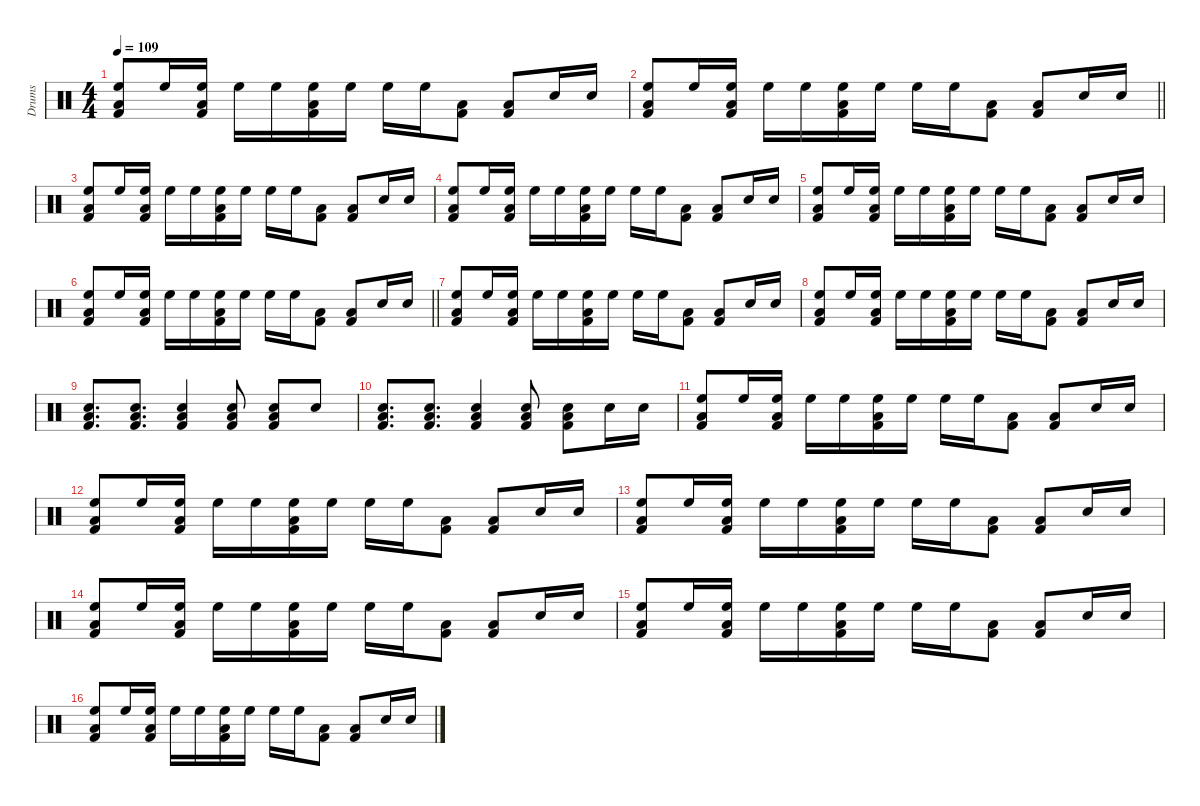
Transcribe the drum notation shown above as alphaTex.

\defaultSystemsLayout 4
\hideDynamics
\bracketExtendMode nobrackets
\otherSystemsTrackNameOrientation horizontal
\track ("Drums" "Drums") {instrument percussion}
\staff {score}
\articulation defaults
\ts (4 4)
\tempo 109
\clef neutral
\scale
0.5
\ks c
("Kick (hit) 2" "Low Tom (hit)" "High Floor Tom (hit)").8{dy mp beam Up} "High Floor Tom (hit)".16{beam Up} ("Kick (hit) 2" "Low Tom (hit)" "High Floor Tom (hit)").16{beam Up} "High Floor Tom (hit)".16{beam Down} "High Floor Tom (hit)".16{beam Down} ("Kick (hit) 2" "Low Tom (hit)" "High Floor Tom (hit)").16{beam Down} "High Floor Tom (hit)".16{beam Down} "High Floor Tom (hit)".16{beam Down} "High Floor Tom (hit)".16{beam Down} ("Kick (hit) 2" "Low Tom (hit)").8{beam Down} ("Kick (hit) 2" "Low Tom (hit)").8{beam Up} "Snare (hit) 2".16{beam Up} "Snare (hit) 2".16{beam Up} |
\scale
0.5
\barLineRight lightlight
("Kick (hit) 2" "Low Tom (hit)" "High Floor Tom (hit)").8{beam Up} "High Floor Tom (hit)".16{beam Up} ("Kick (hit) 2" "Low Tom (hit)" "High Floor Tom (hit)").16{beam Up} "High Floor Tom (hit)".16{beam Down} "High Floor Tom (hit)".16{beam Down} ("Kick (hit) 2" "Low Tom (hit)" "High Floor Tom (hit)").16{beam Down} "High Floor Tom (hit)".16{beam Down} "High Floor Tom (hit)".16{beam Down} "High Floor Tom (hit)".16{beam Down} ("Kick (hit) 2" "Low Tom (hit)").8{beam Down} ("Kick (hit) 2" "Low Tom (hit)").8{beam Up} "Snare (hit) 2".16{beam Up} "Snare (hit) 2".16{beam Up} |
\scale
0.480938 ("Kick (hit) 2" "Low Tom (hit)" "High Floor Tom (hit)").8{beam Up} "High Floor Tom (hit)".16{beam Up} ("Kick (hit) 2" "Low Tom (hit)" "High Floor Tom (hit)").16{beam Up} "High Floor Tom (hit)".16{beam Down} "High Floor Tom (hit)".16{beam Down} ("Kick (hit) 2" "Low Tom (hit)" "High Floor Tom (hit)").16{beam Down} "High Floor Tom (hit)".16{beam Down} "High Floor Tom (hit)".16{beam Down} "High Floor Tom (hit)".16{beam Down} ("Kick (hit) 2" "Low Tom (hit)").8{beam Down} ("Kick (hit) 2" "Low Tom (hit)").8{beam Up} "Snare (hit) 2".16{beam Up} "Snare (hit) 2".16{beam Up} |
\scale
0.519062 ("Kick (hit) 2" "Low Tom (hit)" "High Floor Tom (hit)").8{beam Up} "High Floor Tom (hit)".16{beam Up} ("Kick (hit) 2" "Low Tom (hit)" "High Floor Tom (hit)").16{beam Up} "High Floor Tom (hit)".16{beam Down} "High Floor Tom (hit)".16{beam Down} ("Kick (hit) 2" "Low Tom (hit)" "High Floor Tom (hit)").16{beam Down} "High Floor Tom (hit)".16{beam Down} "High Floor Tom (hit)".16{beam Down} "High Floor Tom (hit)".16{beam Down} ("Kick (hit) 2" "Low Tom (hit)").8{beam Down} ("Kick (hit) 2" "Low Tom (hit)").8{beam Up} "Snare (hit) 2".16{beam Up} "Snare (hit) 2".16{beam Up} |
\scale
0.480938 ("Kick (hit) 2" "Low Tom (hit)" "High Floor Tom (hit)").8{beam Up} "High Floor Tom (hit)".16{beam Up} ("Kick (hit) 2" "Low Tom (hit)" "High Floor Tom (hit)").16{beam Up} "High Floor Tom (hit)".16{beam Down} "High Floor Tom (hit)".16{beam Down} ("Kick (hit) 2" "Low Tom (hit)" "High Floor Tom (hit)").16{beam Down} "High Floor Tom (hit)".16{beam Down} "High Floor Tom (hit)".16{beam Down} "High Floor Tom (hit)".16{beam Down} ("Kick (hit) 2" "Low Tom (hit)").8{beam Down} ("Kick (hit) 2" "Low Tom (hit)").8{beam Up} "Snare (hit) 2".16{beam Up} "Snare (hit) 2".16{beam Up} |
\scale
0.519062
\barLineRight lightlight
("Kick (hit) 2" "Low Tom (hit)" "High Floor Tom (hit)").8{beam Up} "High Floor Tom (hit)".16{beam Up} ("Kick (hit) 2" "Low Tom (hit)" "High Floor Tom (hit)").16{beam Up} "High Floor Tom (hit)".16{beam Down} "High Floor Tom (hit)".16{beam Down} ("Kick (hit) 2" "Low Tom (hit)" "High Floor Tom (hit)").16{beam Down} "High Floor Tom (hit)".16{beam Down} "High Floor Tom (hit)".16{beam Down} "High Floor Tom (hit)".16{beam Down} ("Kick (hit) 2" "Low Tom (hit)").8{beam Down} ("Kick (hit) 2" "Low Tom (hit)").8{beam Up} "Snare (hit) 2".16{beam Up} "Snare (hit) 2".16{beam Up} |
\scale
0.5 ("Kick (hit) 2" "Low Tom (hit)" "High Floor Tom (hit)").8{beam Up} "High Floor Tom (hit)".16{beam Up} ("Kick (hit) 2" "Low Tom (hit)" "High Floor Tom (hit)").16{beam Up} "High Floor Tom (hit)".16{beam Down} "High Floor Tom (hit)".16{beam Down} ("Kick (hit) 2" "Low Tom (hit)" "High Floor Tom (hit)").16{beam Down} "High Floor Tom (hit)".16{beam Down} "High Floor Tom (hit)".16{beam Down} "High Floor Tom (hit)".16{beam Down} ("Kick (hit) 2" "Low Tom (hit)").8{beam Down} ("Kick (hit) 2" "Low Tom (hit)").8{beam Up} "Snare (hit) 2".16{beam Up} "Snare (hit) 2".16{beam Up} |
\scale
0.5 ("Kick (hit) 2" "Low Tom (hit)" "High Floor Tom (hit)").8{beam Up} "High Floor Tom (hit)".16{beam Up} ("Kick (hit) 2" "Low Tom (hit)" "High Floor Tom (hit)").16{beam Up} "High Floor Tom (hit)".16{beam Down} "High Floor Tom (hit)".16{beam Down} ("Kick (hit) 2" "Low Tom (hit)" "High Floor Tom (hit)").16{beam Down} "High Floor Tom (hit)".16{beam Down} "High Floor Tom (hit)".16{beam Down} "High Floor Tom (hit)".16{beam Down} ("Kick (hit) 2" "Low Tom (hit)").8{beam Down} ("Kick (hit) 2" "Low Tom (hit)").8{beam Up} "Snare (hit) 2".16{beam Up} "Snare (hit) 2".16{beam Up} |
("Kick (hit) 2" "Low Tom (hit)" "Snare (hit) 2").8{d beam Up} ("Kick (hit) 2" "Low Tom (hit)" "Snare (hit) 2").8{d beam Up} ("Kick (hit) 2" "Low Tom (hit)" "Snare (hit) 2").4{beam Up} ("Kick (hit) 2" "Low Tom (hit)" "Snare (hit) 2").8{beam Up} ("Kick (hit) 2" "Low Tom (hit)" "Snare (hit) 2").8{beam Up} "Snare (hit) 2".8{beam Up} |
("Kick (hit) 2" "Low Tom (hit)" "Snare (hit) 2").8{d beam Up} ("Kick (hit) 2" "Low Tom (hit)" "Snare (hit) 2").8{d beam Up} ("Kick (hit) 2" "Low Tom (hit)" "Snare (hit) 2").4{beam Up} ("Kick (hit) 2" "Low Tom (hit)" "Snare (hit) 2").8{beam Up} ("Kick (hit) 2" "Low Tom (hit)" "Snare (hit) 2").8{beam Down} "Snare (hit) 2".16{beam Down} "Snare (hit) 2".16{beam Down} |
("Kick (hit) 2" "Low Tom (hit)" "High Floor Tom (hit)").8{beam Up} "High Floor Tom (hit)".16{beam Up} ("Kick (hit) 2" "Low Tom (hit)" "High Floor Tom (hit)").16{beam Up} "High Floor Tom (hit)".16{beam Down} "High Floor Tom (hit)".16{beam Down} ("Kick (hit) 2" "Low Tom (hit)" "High Floor Tom (hit)").16{beam Down} "High Floor Tom (hit)".16{beam Down} "High Floor Tom (hit)".16{beam Down} "High Floor Tom (hit)".16{beam Down} ("Kick (hit) 2" "Low Tom (hit)").8{beam Down} ("Kick (hit) 2" "Low Tom (hit)").8{beam Up} "Snare (hit) 2".16{beam Up} "Snare (hit) 2".16{beam Up} |
("Kick (hit) 2" "Low Tom (hit)" "High Floor Tom (hit)").8{beam Up} "High Floor Tom (hit)".16{beam Up} ("Kick (hit) 2" "Low Tom (hit)" "High Floor Tom (hit)").16{beam Up} "High Floor Tom (hit)".16{beam Down} "High Floor Tom (hit)".16{beam Down} ("Kick (hit) 2" "Low Tom (hit)" "High Floor Tom (hit)").16{beam Down} "High Floor Tom (hit)".16{beam Down} "High Floor Tom (hit)".16{beam Down} "High Floor Tom (hit)".16{beam Down} ("Kick (hit) 2" "Low Tom (hit)").8{beam Down} ("Kick (hit) 2" "Low Tom (hit)").8{beam Up} "Snare (hit) 2".16{beam Up} "Snare (hit) 2".16{beam Up} |
("Kick (hit) 2" "Low Tom (hit)" "High Floor Tom (hit)").8{beam Up} "High Floor Tom (hit)".16{beam Up} ("Kick (hit) 2" "Low Tom (hit)" "High Floor Tom (hit)").16{beam Up} "High Floor Tom (hit)".16{beam Down} "High Floor Tom (hit)".16{beam Down} ("Kick (hit) 2" "Low Tom (hit)" "High Floor Tom (hit)").16{beam Down} "High Floor Tom (hit)".16{beam Down} "High Floor Tom (hit)".16{beam Down} "High Floor Tom (hit)".16{beam Down} ("Kick (hit) 2" "Low Tom (hit)").8{beam Down} ("Kick (hit) 2" "Low Tom (hit)").8{beam Up} "Snare (hit) 2".16{beam Up} "Snare (hit) 2".16{beam Up} |
("Kick (hit) 2" "Low Tom (hit)" "High Floor Tom (hit)").8{beam Up} "High Floor Tom (hit)".16{beam Up} ("Kick (hit) 2" "Low Tom (hit)" "High Floor Tom (hit)").16{beam Up} "High Floor Tom (hit)".16{beam Down} "High Floor Tom (hit)".16{beam Down} ("Kick (hit) 2" "Low Tom (hit)" "High Floor Tom (hit)").16{beam Down} "High Floor Tom (hit)".16{beam Down} "High Floor Tom (hit)".16{beam Down} "High Floor Tom (hit)".16{beam Down} ("Kick (hit) 2" "Low Tom (hit)").8{beam Down} ("Kick (hit) 2" "Low Tom (hit)").8{beam Up} "Snare (hit) 2".16{beam Up} "Snare (hit) 2".16{beam Up} |
("Kick (hit) 2" "Low Tom (hit)" "High Floor Tom (hit)").8{beam Up} "High Floor Tom (hit)".16{beam Up} ("Kick (hit) 2" "Low Tom (hit)" "High Floor Tom (hit)").16{beam Up} "High Floor Tom (hit)".16{beam Down} "High Floor Tom (hit)".16{beam Down} ("Kick (hit) 2" "Low Tom (hit)" "High Floor Tom (hit)").16{beam Down} "High Floor Tom (hit)".16{beam Down} "High Floor Tom (hit)".16{beam Down} "High Floor Tom (hit)".16{beam Down} ("Kick (hit) 2" "Low Tom (hit)").8{beam Down} ("Kick (hit) 2" "Low Tom (hit)").8{beam Up} "Snare (hit) 2".16{beam Up} "Snare (hit) 2".16{beam Up} |
("Kick (hit) 2" "Low Tom (hit)" "High Floor Tom (hit)").8{beam Up} "High Floor Tom (hit)".16{beam Up} ("Kick (hit) 2" "Low Tom (hit)" "High Floor Tom (hit)").16{beam Up} "High Floor Tom (hit)".16{beam Down} "High Floor Tom (hit)".16{beam Down} ("Kick (hit) 2" "Low Tom (hit)" "High Floor Tom (hit)").16{beam Down} "High Floor Tom (hit)".16{beam Down} "High Floor Tom (hit)".16{beam Down} "High Floor Tom (hit)".16{beam Down} ("Kick (hit) 2" "Low Tom (hit)").8{beam Down} ("Kick (hit) 2" "Low Tom (hit)").8{beam Up} "Snare (hit) 2".16{beam Up} "Snare (hit) 2".16{beam Up}
